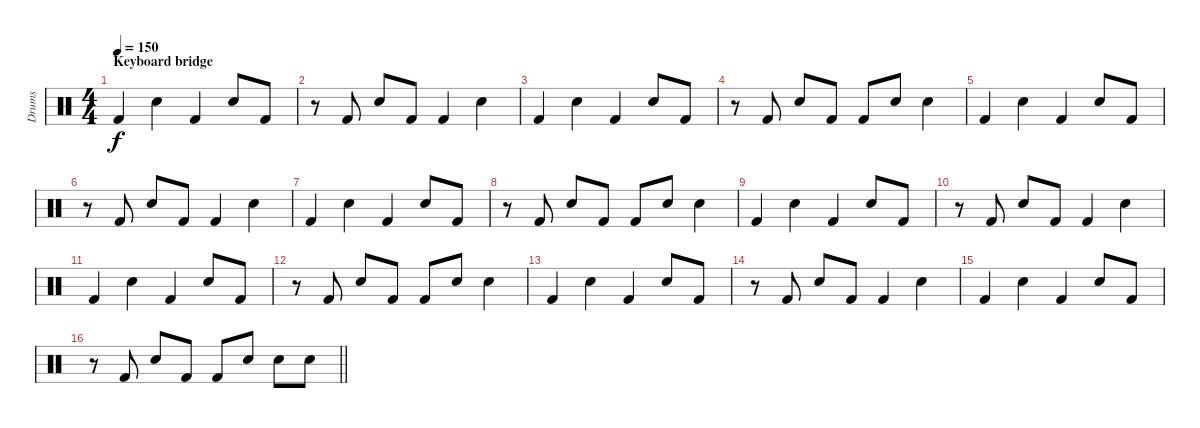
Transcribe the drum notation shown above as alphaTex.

\track ("Drums" "Drums") {instrument percussion}
\staff {score}
\articulation defaults
\ts (4 4)
\section ("" "Keyboard bridge")
\tempo 150
\clef neutral
\ks c "Kick (hit) 2".4{dy f} "Hand Clap (hit)".4 "Kick (hit) 2".4 "Hand Clap (hit)".8 "Kick (hit) 2".8
|
r.8 "Kick (hit) 2".8 "Hand Clap (hit)".8 "Kick (hit) 2".8 "Kick (hit) 2".4 "Hand Clap (hit)".4 |
"Kick (hit) 2".4 "Hand Clap (hit)".4 "Kick (hit) 2".4 "Hand Clap (hit)".8 "Kick (hit) 2".8 |
r.8 "Kick (hit) 2".8 "Hand Clap (hit)".8 "Kick (hit) 2".8 "Kick (hit) 2".8 "Hand Clap (hit)".8 "Hand Clap (hit)".4 |
"Kick (hit) 2".4 "Hand Clap (hit)".4 "Kick (hit) 2".4 "Hand Clap (hit)".8 "Kick (hit) 2".8 |
r.8 "Kick (hit) 2".8 "Hand Clap (hit)".8 "Kick (hit) 2".8 "Kick (hit) 2".4 "Hand Clap (hit)".4 |
"Kick (hit) 2".4 "Hand Clap (hit)".4 "Kick (hit) 2".4 "Hand Clap (hit)".8 "Kick (hit) 2".8 |
r.8 "Kick (hit) 2".8 "Hand Clap (hit)".8 "Kick (hit) 2".8 "Kick (hit) 2".8 "Hand Clap (hit)".8 "Hand Clap (hit)".4 |
"Kick (hit) 2".4 "Snare (hit) 2".4 "Kick (hit) 2".4 "Snare (hit) 2".8 "Kick (hit) 2".8 |
r.8 "Kick (hit) 2".8 "Snare (hit) 2".8 "Kick (hit) 2".8 "Kick (hit) 2".4 "Snare (hit) 2".4 |
"Kick (hit) 2".4 "Snare (hit) 2".4 "Kick (hit) 2".4 "Snare (hit) 2".8 "Kick (hit) 2".8 |
r.8 "Kick (hit) 2".8 "Snare (hit) 2".8 "Kick (hit) 2".8 "Kick (hit) 2".8 "Snare (hit) 2".8 "Snare (hit) 2".4 |
"Kick (hit) 2".4 "Snare (hit) 2".4 "Kick (hit) 2".4 "Snare (hit) 2".8 "Kick (hit) 2".8 |
r.8 "Kick (hit) 2".8 "Snare (hit) 2".8 "Kick (hit) 2".8 "Kick (hit) 2".4 "Snare (hit) 2".4 |
"Kick (hit) 2".4 "Snare (hit) 2".4 "Kick (hit) 2".4 "Snare (hit) 2".8 "Kick (hit) 2".8 |
\barLineRight lightlight
r.8 "Kick (hit) 2".8 "Snare (hit) 2".8 "Kick (hit) 2".8 "Kick (hit) 2".8 "Snare (hit) 2".8 "Snare (hit) 2".8 "Snare (hit) 2".8
